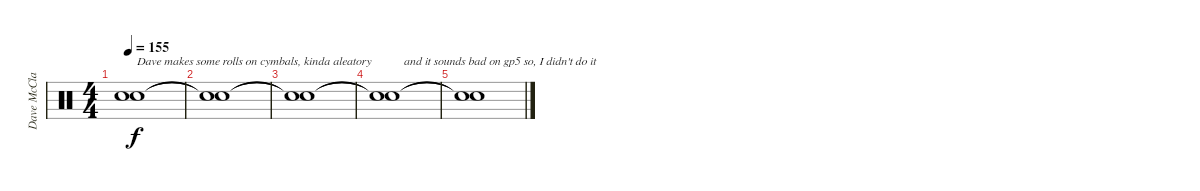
\track ("Dave McClain (Drums)" "Dave McCla") {instrument percussion}
\staff {score}
\articulation defaults
\ts (4 4)
\tempo 155
\clef neutral
\ks c
("Snare (hit)"{t} "Snare (hit)"{t}).1{txt "Dave makes some rolls on cymbals, kinda aleatory" dy f} |
("Snare (hit)"{t} "Snare (hit)"{t}).1 |
("Snare (hit)"{t} "Snare (hit)"{t}).1 |
("Snare (hit)"{t} "Snare (hit)"{t}).1{txt "    and it sounds bad on gp5 so, I didn't do it"} |
("Snare (hit)"{t} "Snare (hit)"{t}).1
